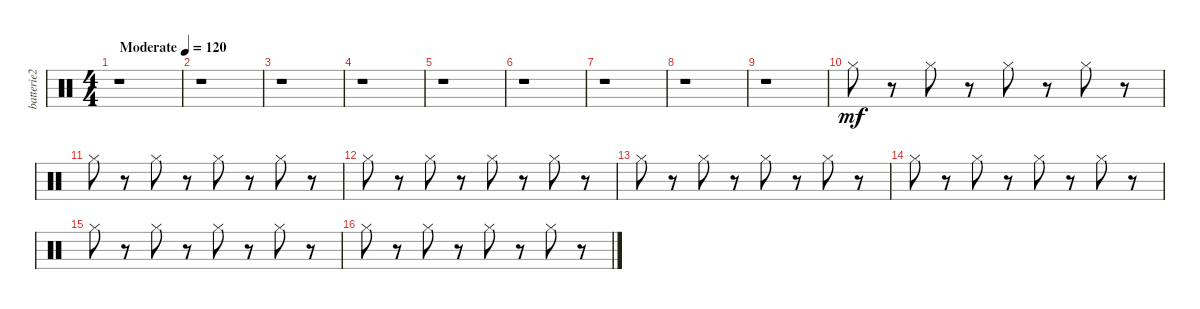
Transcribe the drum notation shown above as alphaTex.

\track ("batterie2" "batterie2") {instrument percussion}
\staff {score}
\articulation defaults
\ts (4 4)
\tempo (120 "Moderate")
\clef neutral
\ks c
r.1{dy mf} |
r.1 |
r.1 |
r.1 |
r.1 |
r.1 |
r.1 |
r.1 |
r.1 |
"Hi-Hat (closed)".8 r.8 "Hi-Hat (closed)".8 r.8 "Hi-Hat (closed)".8 r.8 "Hi-Hat (closed)".8 r.8 |
"Hi-Hat (closed)".8 r.8 "Hi-Hat (closed)".8 r.8 "Hi-Hat (closed)".8 r.8 "Hi-Hat (closed)".8 r.8 |
"Hi-Hat (closed)".8 r.8 "Hi-Hat (closed)".8 r.8 "Hi-Hat (closed)".8 r.8 "Hi-Hat (closed)".8 r.8 |
"Hi-Hat (closed)".8 r.8 "Hi-Hat (closed)".8 r.8 "Hi-Hat (closed)".8 r.8 "Hi-Hat (closed)".8 r.8 |
"Hi-Hat (closed)".8 r.8 "Hi-Hat (closed)".8 r.8 "Hi-Hat (closed)".8 r.8 "Hi-Hat (closed)".8 r.8 |
"Hi-Hat (closed)".8 r.8 "Hi-Hat (closed)".8 r.8 "Hi-Hat (closed)".8 r.8 "Hi-Hat (closed)".8 r.8 |
"Hi-Hat (closed)".8 r.8 "Hi-Hat (closed)".8 r.8 "Hi-Hat (closed)".8 r.8 "Hi-Hat (closed)".8 r.8
